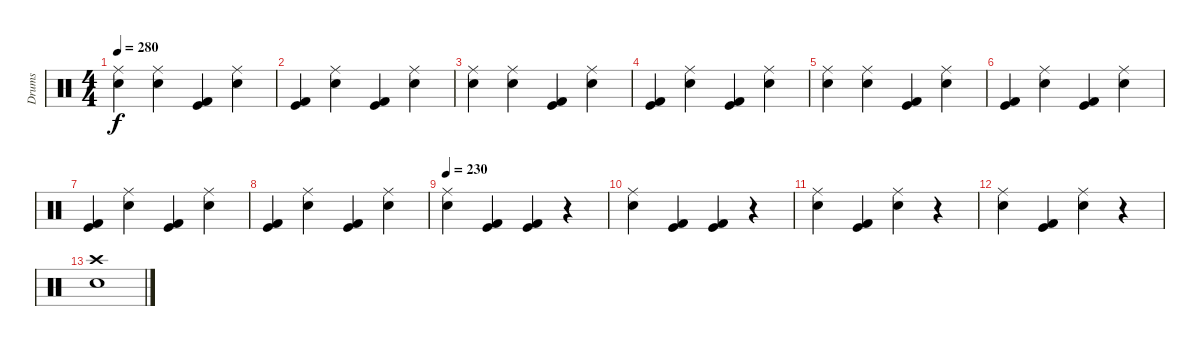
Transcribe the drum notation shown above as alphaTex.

\track ("Drums" "Drums") {instrument percussion}
\staff {score}
\articulation defaults
\ts (4 4)
\tempo 280
\clef neutral
\ks c
("Ride (middle)" "Electric Snare (hit)").4{dy f} ("Ride (middle)" "Electric Snare (hit)").4 ("Kick (hit)" "Kick (hit) 2").4 ("Ride (middle)" "Electric Snare (hit)").4 |
("Kick (hit)" "Kick (hit) 2").4 ("Ride (middle)" "Electric Snare (hit)").4 ("Kick (hit)" "Kick (hit) 2").4 ("Ride (middle)" "Electric Snare (hit)").4 |
("Ride (middle)" "Electric Snare (hit)").4 ("Ride (middle)" "Electric Snare (hit)").4 ("Kick (hit)" "Kick (hit) 2").4 ("Ride (middle)" "Electric Snare (hit)").4 |
("Kick (hit)" "Kick (hit) 2").4 ("Ride (middle)" "Electric Snare (hit)").4 ("Kick (hit)" "Kick (hit) 2").4 ("Ride (middle)" "Electric Snare (hit)").4 |
("Ride (middle)" "Electric Snare (hit)").4 ("Ride (middle)" "Electric Snare (hit)").4 ("Kick (hit)" "Kick (hit) 2").4 ("Ride (middle)" "Electric Snare (hit)").4 |
("Kick (hit)" "Kick (hit) 2").4 ("Ride (middle)" "Electric Snare (hit)").4 ("Kick (hit)" "Kick (hit) 2").4 ("Ride (middle)" "Electric Snare (hit)").4 |
("Kick (hit)" "Kick (hit) 2").4 ("Ride (middle)" "Electric Snare (hit)").4 ("Kick (hit)" "Kick (hit) 2").4 ("Ride (middle)" "Electric Snare (hit)").4 |
("Kick (hit)" "Kick (hit) 2").4 ("Ride (middle)" "Electric Snare (hit)").4 ("Kick (hit)" "Kick (hit) 2").4 ("Ride (middle)" "Electric Snare (hit)").4 |
\tempo 230
("Ride (middle)" "Electric Snare (hit)").4 ("Kick (hit)" "Kick (hit) 2").4 ("Kick (hit)" "Kick (hit) 2").4 r.4 |
("Ride (middle)" "Electric Snare (hit)").4 ("Kick (hit)" "Kick (hit) 2").4 ("Kick (hit)" "Kick (hit) 2").4 r.4 |
("Ride (middle)" "Electric Snare (hit)").4 ("Kick (hit)" "Kick (hit) 2").4 ("Ride (middle)" "Electric Snare (hit)").4 r.4 |
("Ride (middle)" "Electric Snare (hit)").4 ("Kick (hit)" "Kick (hit) 2").4 ("Ride (middle)" "Electric Snare (hit)").4 r.4 |
("Crash high (hit)" "Electric Snare (hit)").1
